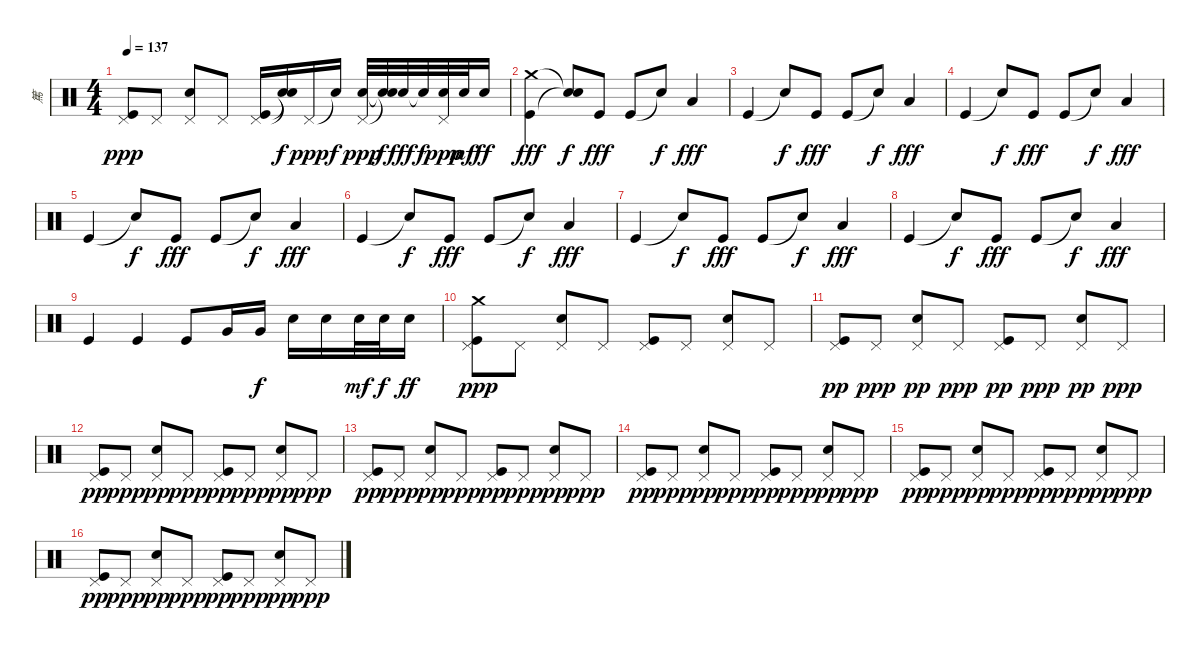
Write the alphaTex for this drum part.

\track ("篤" "篤") {instrument percussion}
\staff {score}
\articulation defaults
\ts (4 4)
\tempo 137
\clef neutral
\ks c
("Kick (hit)" "Pedal Hi-Hat (hit)").8{dy ppp} "Pedal Hi-Hat (hit)".8 ("Snare (hit) 2" "Pedal Hi-Hat (hit)").8 "Pedal Hi-Hat (hit)".8 ("Kick (hit)" "Pedal Hi-Hat (hit)").16 ("Snare (hit)"{t} "Snare (hit)"{t}).16{dy f} "Pedal Hi-Hat (hit)".16{dy ppp} "Snare (hit)"{t}.16{dy f} ("Snare (hit) 2" "Pedal Hi-Hat (hit)").32{dy ppp} ("Snare (hit)"{t} "Snare (hit)"{t}).32{dy f} "Snare (hit) 2".32{dy fff} "Snare (hit)"{t}.32{dy f} ("Snare (hit) 2" "Pedal Hi-Hat (hit)").32{dy ppp} "Snare (hit) 2".32{dy mf} "Snare (hit) 2".16{dy ff} |
("Kick (hit)" "Crash medium (hit)").4{dy fff} ("Snare (hit)"{t} "Snare (hit)"{t}).8{dy f} "Kick (hit)".8{dy fff} "Kick (hit)".8 "Snare (hit)"{t}.8{dy f} "Low Floor Tom (hit)".4{dy fff} |
"Kick (hit)".4 "Snare (hit)"{t}.8{dy f} "Kick (hit)".8{dy fff} "Kick (hit)".8 "Snare (hit)"{t}.8{dy f} "Low Floor Tom (hit)".4{dy fff} |
"Kick (hit)".4 "Snare (hit)"{t}.8{dy f} "Kick (hit)".8{dy fff} "Kick (hit)".8 "Snare (hit)"{t}.8{dy f} "Low Floor Tom (hit)".4{dy fff} |
"Kick (hit)".4 "Snare (hit)"{t}.8{dy f} "Kick (hit)".8{dy fff} "Kick (hit)".8 "Snare (hit)"{t}.8{dy f} "Low Floor Tom (hit)".4{dy fff} |
"Kick (hit)".4 "Snare (hit)"{t}.8{dy f} "Kick (hit)".8{dy fff} "Kick (hit)".8 "Snare (hit)"{t}.8{dy f} "Low Floor Tom (hit)".4{dy fff} |
"Kick (hit)".4 "Snare (hit)"{t}.8{dy f} "Kick (hit)".8{dy fff} "Kick (hit)".8 "Snare (hit)"{t}.8{dy f} "Low Floor Tom (hit)".4{dy fff} |
"Kick (hit)".4 "Snare (hit)"{t}.8{dy f} "Kick (hit)".8{dy fff} "Kick (hit)".8 "Snare (hit)"{t}.8{dy f} "Low Floor Tom (hit)".4{dy fff} |
"Kick (hit)".4 "Kick (hit)".4 "Kick (hit)".8 "Very Low Tom (hit)".16 "Very Low Tom (hit)".16{dy f} "Snare (hit) 2".16 "Snare (hit) 2".16 "Snare (hit) 2".32{dy mf} "Snare (hit) 2".32{dy f} "Snare (hit) 2".16{dy ff} |
("Crash medium (hit)" "Kick (hit)" "Pedal Hi-Hat (hit)").8{dy ppp} "Pedal Hi-Hat (hit)".8 ("Snare (hit) 2" "Pedal Hi-Hat (hit)").8 "Pedal Hi-Hat (hit)".8 ("Kick (hit)" "Pedal Hi-Hat (hit)").8 "Pedal Hi-Hat (hit)".8 ("Snare (hit) 2" "Pedal Hi-Hat (hit)").8 "Pedal Hi-Hat (hit)".8 |
("Kick (hit)" "Pedal Hi-Hat (hit)").8{dy pp} "Pedal Hi-Hat (hit)".8{dy ppp} ("Snare (hit) 2" "Pedal Hi-Hat (hit)").8{dy pp} "Pedal Hi-Hat (hit)".8{dy ppp} ("Kick (hit)" "Pedal Hi-Hat (hit)").8{dy pp} "Pedal Hi-Hat (hit)".8{dy ppp} ("Snare (hit) 2" "Pedal Hi-Hat (hit)").8{dy pp} "Pedal Hi-Hat (hit)".8{dy ppp} |
("Kick (hit)" "Pedal Hi-Hat (hit)").8{dy pp} "Pedal Hi-Hat (hit)".8{dy ppp} ("Snare (hit) 2" "Pedal Hi-Hat (hit)").8{dy pp} "Pedal Hi-Hat (hit)".8{dy ppp} ("Kick (hit)" "Pedal Hi-Hat (hit)").8{dy pp} "Pedal Hi-Hat (hit)".8{dy ppp} ("Snare (hit) 2" "Pedal Hi-Hat (hit)").8{dy pp} "Pedal Hi-Hat (hit)".8{dy ppp} |
("Kick (hit)" "Pedal Hi-Hat (hit)").8{dy pp} "Pedal Hi-Hat (hit)".8{dy ppp} ("Snare (hit) 2" "Pedal Hi-Hat (hit)").8{dy pp} "Pedal Hi-Hat (hit)".8{dy ppp} ("Kick (hit)" "Pedal Hi-Hat (hit)").8{dy pp} "Pedal Hi-Hat (hit)".8{dy ppp} ("Snare (hit) 2" "Pedal Hi-Hat (hit)").8{dy pp} "Pedal Hi-Hat (hit)".8{dy ppp} |
("Kick (hit)" "Pedal Hi-Hat (hit)").8{dy pp} "Pedal Hi-Hat (hit)".8{dy ppp} ("Snare (hit) 2" "Pedal Hi-Hat (hit)").8{dy pp} "Pedal Hi-Hat (hit)".8{dy ppp} ("Kick (hit)" "Pedal Hi-Hat (hit)").8{dy pp} "Pedal Hi-Hat (hit)".8{dy ppp} ("Snare (hit) 2" "Pedal Hi-Hat (hit)").8{dy pp} "Pedal Hi-Hat (hit)".8{dy ppp} |
("Kick (hit)" "Pedal Hi-Hat (hit)").8{dy pp} "Pedal Hi-Hat (hit)".8{dy ppp} ("Snare (hit) 2" "Pedal Hi-Hat (hit)").8{dy pp} "Pedal Hi-Hat (hit)".8{dy ppp} ("Kick (hit)" "Pedal Hi-Hat (hit)").8{dy pp} "Pedal Hi-Hat (hit)".8{dy ppp} ("Snare (hit) 2" "Pedal Hi-Hat (hit)").8{dy pp} "Pedal Hi-Hat (hit)".8{dy ppp} |
("Kick (hit)" "Pedal Hi-Hat (hit)").8{dy pp} "Pedal Hi-Hat (hit)".8{dy ppp} ("Snare (hit) 2" "Pedal Hi-Hat (hit)").8{dy pp} "Pedal Hi-Hat (hit)".8{dy ppp} ("Kick (hit)" "Pedal Hi-Hat (hit)").8{dy pp} "Pedal Hi-Hat (hit)".8{dy ppp} ("Snare (hit) 2" "Pedal Hi-Hat (hit)").8{dy pp} "Pedal Hi-Hat (hit)".8{dy ppp}
